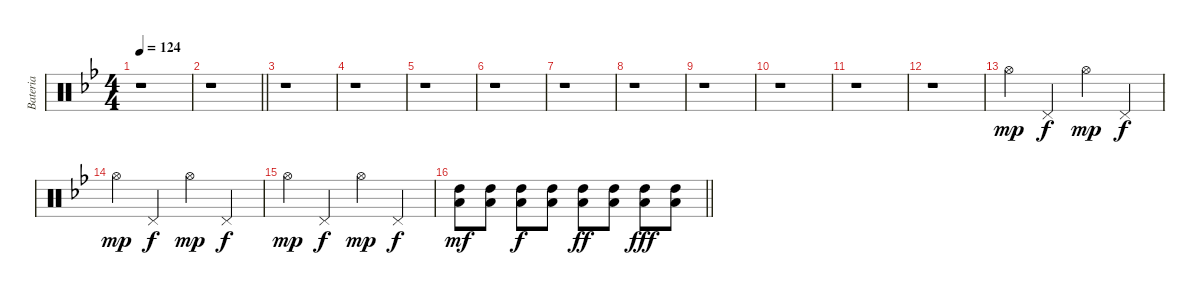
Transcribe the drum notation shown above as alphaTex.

\track ("Bateria" "Bateria") {instrument percussion}
\staff {score}
\articulation defaults
\ts (4 4)
\tempo 124
\clef neutral
\ks bb
r.1{dy mp} |
\barLineRight lightlight
r.1 |
r.1 |
r.1 |
r.1 |
r.1 |
r.1 |
r.1 |
r.1 |
r.1 |
r.1 |
r.1 |
"Hi-Hat (open)".4 "Pedal Hi-Hat (hit)".4{dy f} "Hi-Hat (open)".4{dy mp} "Pedal Hi-Hat (hit)".4{dy f} |
"Hi-Hat (open)".4{dy mp} "Pedal Hi-Hat (hit)".4{dy f} "Hi-Hat (open)".4{dy mp} "Pedal Hi-Hat (hit)".4{dy f} |
"Hi-Hat (open)".4{dy mp} "Pedal Hi-Hat (hit)".4{dy f} "Hi-Hat (open)".4{dy mp} "Pedal Hi-Hat (hit)".4{dy f} |
\barLineRight lightlight
("High Tom (hit)" "Low Tom (hit)").8{dy mf} ("High Tom (hit)" "Low Tom (hit)").8 ("High Tom (hit)" "Low Tom (hit)").8{dy f} ("High Tom (hit)" "Low Tom (hit)").8 ("High Tom (hit)" "Low Tom (hit)").8{dy ff} ("High Tom (hit)" "Low Tom (hit)").8 ("High Tom (hit)" "Low Tom (hit)").8{dy fff} ("High Tom (hit)" "Low Tom (hit)").8
